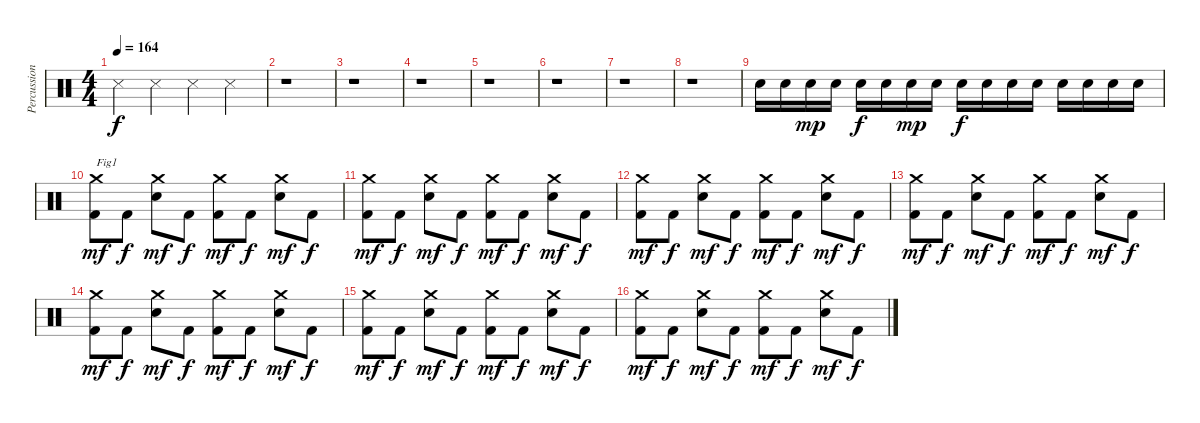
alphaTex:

\track ("Percussions" "Percussion") {instrument percussion}
\staff {score}
\articulation defaults
\ts (4 4)
\tempo 164
\clef neutral
\ks c "Metronome (hit)".4{dy f} "Metronome (hit)".4 "Metronome (hit)".4 "Metronome (hit)".4
|
r.1 |
r.1 |
r.1 |
r.1 |
r.1 |
r.1 |
r.1 |
"Electric Snare (hit)".16 "Electric Snare (hit)".16 "Electric Snare (hit)".16{dy mp} "Electric Snare (hit)".16 "Electric Snare (hit)".16{dy f} "Electric Snare (hit)".16 "Electric Snare (hit)".16{dy mp} "Electric Snare (hit)".16 "Electric Snare (hit)".16{dy f} "Electric Snare (hit)".16 "Electric Snare (hit)".16 "Electric Snare (hit)".16 "Electric Snare (hit)".16 "Electric Snare (hit)".16 "Electric Snare (hit)".16 "Electric Snare (hit)".16 |
("Kick (hit) 2" "Crash medium (hit)").8{txt "Fig1" dy mf} "Kick (hit) 2".8{dy f} ("Electric Snare (hit)" "Crash medium (hit)").8{dy mf} "Kick (hit) 2".8{dy f} ("Kick (hit) 2" "Crash medium (hit)").8{dy mf} "Kick (hit) 2".8{dy f} ("Electric Snare (hit)" "Crash medium (hit)").8{dy mf} "Kick (hit) 2".8{dy f} |
("Kick (hit) 2" "Crash medium (hit)").8{dy mf} "Kick (hit) 2".8{dy f} ("Electric Snare (hit)" "Crash medium (hit)").8{dy mf} "Kick (hit) 2".8{dy f} ("Kick (hit) 2" "Crash medium (hit)").8{dy mf} "Kick (hit) 2".8{dy f} ("Electric Snare (hit)" "Crash medium (hit)").8{dy mf} "Kick (hit) 2".8{dy f} |
("Kick (hit) 2" "Crash medium (hit)").8{dy mf} "Kick (hit) 2".8{dy f} ("Electric Snare (hit)" "Crash medium (hit)").8{dy mf} "Kick (hit) 2".8{dy f} ("Kick (hit) 2" "Crash medium (hit)").8{dy mf} "Kick (hit) 2".8{dy f} ("Electric Snare (hit)" "Crash medium (hit)").8{dy mf} "Kick (hit) 2".8{dy f} |
("Kick (hit) 2" "Crash medium (hit)").8{dy mf} "Kick (hit) 2".8{dy f} ("Electric Snare (hit)" "Crash medium (hit)").8{dy mf} "Kick (hit) 2".8{dy f} ("Kick (hit) 2" "Crash medium (hit)").8{dy mf} "Kick (hit) 2".8{dy f} ("Electric Snare (hit)" "Crash medium (hit)").8{dy mf} "Kick (hit) 2".8{dy f} |
("Kick (hit) 2" "Crash medium (hit)").8{dy mf} "Kick (hit) 2".8{dy f} ("Electric Snare (hit)" "Crash medium (hit)").8{dy mf} "Kick (hit) 2".8{dy f} ("Kick (hit) 2" "Crash medium (hit)").8{dy mf} "Kick (hit) 2".8{dy f} ("Electric Snare (hit)" "Crash medium (hit)").8{dy mf} "Kick (hit) 2".8{dy f} |
("Kick (hit) 2" "Crash medium (hit)").8{dy mf} "Kick (hit) 2".8{dy f} ("Electric Snare (hit)" "Crash medium (hit)").8{dy mf} "Kick (hit) 2".8{dy f} ("Kick (hit) 2" "Crash medium (hit)").8{dy mf} "Kick (hit) 2".8{dy f} ("Electric Snare (hit)" "Crash medium (hit)").8{dy mf} "Kick (hit) 2".8{dy f} |
("Kick (hit) 2" "Crash medium (hit)").8{dy mf} "Kick (hit) 2".8{dy f} ("Electric Snare (hit)" "Crash medium (hit)").8{dy mf} "Kick (hit) 2".8{dy f} ("Kick (hit) 2" "Crash medium (hit)").8{dy mf} "Kick (hit) 2".8{dy f} ("Electric Snare (hit)" "Crash medium (hit)").8{dy mf} "Kick (hit) 2".8{dy f}
